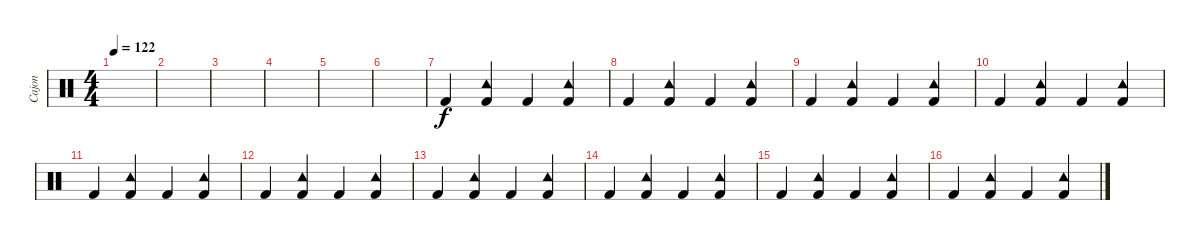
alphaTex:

\track ("Cajon" "Cajon") {instrument percussion}
\staff {score}
\articulation defaults
\ts (4 4)
\tempo 122
\clef neutral
\ks c
|
|
|
|
|
|
"Kick (hit) 2".4 ("Tambourine (hit)" "Kick (hit) 2").4 "Kick (hit) 2".4 ("Tambourine (hit)" "Kick (hit) 2").4 |
"Kick (hit) 2".4 ("Tambourine (hit)" "Kick (hit) 2").4 "Kick (hit) 2".4 ("Tambourine (hit)" "Kick (hit) 2").4 |
"Kick (hit) 2".4 ("Tambourine (hit)" "Kick (hit) 2").4 "Kick (hit) 2".4 ("Tambourine (hit)" "Kick (hit) 2").4 |
"Kick (hit) 2".4 ("Tambourine (hit)" "Kick (hit) 2").4 "Kick (hit) 2".4 ("Tambourine (hit)" "Kick (hit) 2").4 |
"Kick (hit) 2".4 ("Tambourine (hit)" "Kick (hit) 2").4 "Kick (hit) 2".4 ("Tambourine (hit)" "Kick (hit) 2").4 |
"Kick (hit) 2".4 ("Tambourine (hit)" "Kick (hit) 2").4 "Kick (hit) 2".4 ("Tambourine (hit)" "Kick (hit) 2").4 |
"Kick (hit) 2".4 ("Tambourine (hit)" "Kick (hit) 2").4 "Kick (hit) 2".4 ("Tambourine (hit)" "Kick (hit) 2").4 |
"Kick (hit) 2".4 ("Tambourine (hit)" "Kick (hit) 2").4 "Kick (hit) 2".4 ("Tambourine (hit)" "Kick (hit) 2").4 |
"Kick (hit) 2".4 ("Tambourine (hit)" "Kick (hit) 2").4 "Kick (hit) 2".4 ("Tambourine (hit)" "Kick (hit) 2").4 |
"Kick (hit) 2".4 ("Tambourine (hit)" "Kick (hit) 2").4 "Kick (hit) 2".4 ("Tambourine (hit)" "Kick (hit) 2").4
